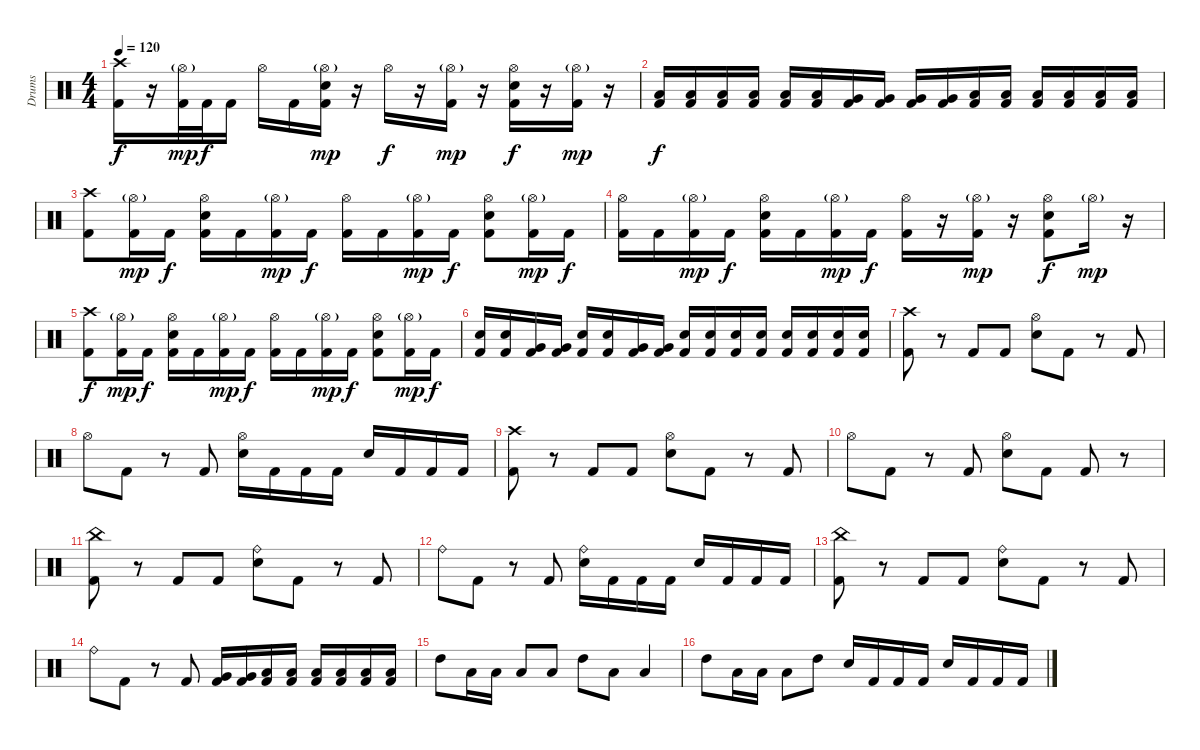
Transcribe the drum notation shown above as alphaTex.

\track ("Drums" "Drums") {instrument percussion}
\staff {score}
\articulation defaults
\ts (4 4)
\tempo 120
\clef neutral
\ks c
("Crash high (hit)" "Kick (hit) 2").16{dy f} r.16 ("Hi-Hat (open)"{g} "Kick (hit) 2").32{dy mp} "Kick (hit) 2".32{dy f} "Kick (hit) 2".16 "Hi-Hat (open)".16 "Kick (hit) 2".16 ("Hi-Hat (open)"{g} "Snare (hit) 2" "Kick (hit) 2").16{dy mp} r.16 "Hi-Hat (open)".16{dy f} r.16 ("Hi-Hat (open)"{g} "Kick (hit) 2").16{dy mp} r.16 ("Hi-Hat (open)" "Snare (hit) 2" "Kick (hit) 2").16{dy f} r.16 ("Hi-Hat (open)"{g} "Kick (hit) 2").16{dy mp} r.16 |
("Low Tom (hit)" "Kick (hit) 2").16{dy f} ("Low Tom (hit)" "Kick (hit) 2").16 ("Low Tom (hit)" "Kick (hit) 2").16 ("Low Tom (hit)" "Kick (hit) 2").16 ("Low Tom (hit)" "Kick (hit) 2").16 ("Low Tom (hit)" "Kick (hit) 2").16 ("Very Low Tom (hit)" "Kick (hit) 2").16 ("Very Low Tom (hit)" "Kick (hit) 2").16 ("Very Low Tom (hit)" "Kick (hit) 2").16 ("Very Low Tom (hit)" "Kick (hit) 2").16 ("Low Floor Tom (hit)" "Kick (hit) 2").16 ("Low Floor Tom (hit)" "Kick (hit) 2").16 ("Low Floor Tom (hit)" "Kick (hit) 2").16 ("Low Floor Tom (hit)" "Kick (hit) 2").16 ("Low Floor Tom (hit)" "Kick (hit) 2").16 ("Low Floor Tom (hit)" "Kick (hit) 2").16 |
("Crash high (hit)" "Kick (hit) 2").8 ("Hi-Hat (open)"{g} "Kick (hit) 2").16{dy mp} "Kick (hit) 2".16{dy f} ("Hi-Hat (open)" "Snare (hit) 2" "Kick (hit) 2").16 "Kick (hit) 2".16 ("Hi-Hat (open)"{g} "Kick (hit) 2").16{dy mp} "Kick (hit) 2".16{dy f} ("Hi-Hat (open)" "Kick (hit) 2").16 "Kick (hit) 2".16 ("Hi-Hat (open)"{g} "Kick (hit) 2").16{dy mp} "Kick (hit) 2".16{dy f} ("Hi-Hat (open)" "Snare (hit) 2" "Kick (hit) 2").8 ("Hi-Hat (open)"{g} "Kick (hit) 2").16{dy mp} "Kick (hit) 2".16{dy f} |
("Hi-Hat (open)" "Kick (hit) 2").16 "Kick (hit) 2".16 ("Hi-Hat (open)"{g} "Kick (hit) 2").16{dy mp} "Kick (hit) 2".16{dy f} ("Hi-Hat (open)" "Snare (hit) 2" "Kick (hit) 2").16 "Kick (hit) 2".16 ("Hi-Hat (open)"{g} "Kick (hit) 2").16{dy mp} "Kick (hit) 2".16{dy f} ("Hi-Hat (open)" "Kick (hit) 2").16 r.16 ("Hi-Hat (open)"{g} "Kick (hit) 2").16{dy mp} r.16 ("Hi-Hat (open)" "Snare (hit) 2" "Kick (hit) 2").8{dy f} "Hi-Hat (open)"{g}.16{dy mp} r.16 |
("Crash high (hit)" "Kick (hit) 2").8{dy f} ("Hi-Hat (open)"{g} "Kick (hit) 2").16{dy mp} "Kick (hit) 2".16{dy f} ("Hi-Hat (open)" "Snare (hit) 2" "Kick (hit) 2").16 "Kick (hit) 2".16 ("Hi-Hat (open)"{g} "Kick (hit) 2").16{dy mp} "Kick (hit) 2".16{dy f} ("Hi-Hat (open)" "Kick (hit) 2").16 "Kick (hit) 2".16 ("Hi-Hat (open)"{g} "Kick (hit) 2").16{dy mp} "Kick (hit) 2".16{dy f} ("Hi-Hat (open)" "Snare (hit) 2" "Kick (hit) 2").8 ("Hi-Hat (open)"{g} "Kick (hit) 2").16{dy mp} "Kick (hit) 2".16{dy f} |
("Snare (hit) 2" "Kick (hit) 2").16 ("Snare (hit) 2" "Kick (hit) 2").16 ("Very Low Tom (hit)" "Kick (hit) 2").16 ("Very Low Tom (hit)" "Kick (hit) 2").16 ("Snare (hit) 2" "Kick (hit) 2").16 ("Snare (hit) 2" "Kick (hit) 2").16 ("Very Low Tom (hit)" "Kick (hit) 2").16 ("Very Low Tom (hit)" "Kick (hit) 2").16 ("Snare (hit) 2" "Kick (hit) 2").16 ("Snare (hit) 2" "Kick (hit) 2").16 ("Snare (hit) 2" "Kick (hit) 2").16 ("Snare (hit) 2" "Kick (hit) 2").16 ("Snare (hit) 2" "Kick (hit) 2").16 ("Snare (hit) 2" "Kick (hit) 2").16 ("Snare (hit) 2" "Kick (hit) 2").16 ("Snare (hit) 2" "Kick (hit) 2").16 |
("Crash high (hit)" "Kick (hit) 2").8 r.8 "Kick (hit) 2".8 "Kick (hit) 2".8 ("Hi-Hat (open)" "Snare (hit) 2").8 "Kick (hit) 2".8 r.8 "Kick (hit) 2".8 |
"Hi-Hat (open)".8 "Kick (hit) 2".8 r.8 "Kick (hit) 2".8 ("Hi-Hat (open)" "Snare (hit) 2").16 "Kick (hit) 2".16 "Kick (hit) 2".16 "Kick (hit) 2".16 "Snare (hit) 2".16 "Kick (hit) 2".16 "Kick (hit) 2".16 "Kick (hit) 2".16 |
("Crash high (hit)" "Kick (hit) 2").8 r.8 "Kick (hit) 2".8 "Kick (hit) 2".8 ("Hi-Hat (open)" "Snare (hit) 2").8 "Kick (hit) 2".8 r.8 "Kick (hit) 2".8 |
"Hi-Hat (open)".8 "Kick (hit) 2".8 r.8 "Kick (hit) 2".8 ("Hi-Hat (open)" "Snare (hit) 2").8 "Kick (hit) 2".8 "Kick (hit) 2".8 r.8 |
("China (hit)" "Kick (hit) 2").8 r.8 "Kick (hit) 2".8 "Kick (hit) 2".8 ("Ride (bell)" "Snare (hit) 2").8 "Kick (hit) 2".8 r.8 "Kick (hit) 2".8 |
"Ride (bell)".8 "Kick (hit) 2".8 r.8 "Kick (hit) 2".8 ("Ride (bell)" "Snare (hit) 2").16 "Kick (hit) 2".16 "Kick (hit) 2".16 "Kick (hit) 2".16 "Snare (hit) 2".16 "Kick (hit) 2".16 "Kick (hit) 2".16 "Kick (hit) 2".16 |
("China (hit)" "Kick (hit) 2").8 r.8 "Kick (hit) 2".8 "Kick (hit) 2".8 ("Ride (bell)" "Snare (hit) 2").8 "Kick (hit) 2".8 r.8 "Kick (hit) 2".8 |
"Ride (bell)".8 "Kick (hit) 2".8 r.8 "Kick (hit) 2".8 ("Very Low Tom (hit)" "Kick (hit) 2").16 ("Very Low Tom (hit)" "Kick (hit) 2").16 ("Low Floor Tom (hit)" "Kick (hit) 2").16 ("Low Floor Tom (hit)" "Kick (hit) 2").16 ("Low Floor Tom (hit)" "Kick (hit) 2").16 ("Low Floor Tom (hit)" "Kick (hit) 2").16 ("Low Floor Tom (hit)" "Kick (hit) 2").16 ("Low Floor Tom (hit)" "Kick (hit) 2").16 |
"High Tom (hit)".8 "Low Tom (hit)".16 "Low Tom (hit)".16 "Low Tom (hit)".8 "Low Tom (hit)".8 "High Tom (hit)".8 "Low Tom (hit)".8 "Low Tom (hit)".4 |
"High Tom (hit)".8 "Low Tom (hit)".16 "Low Tom (hit)".16 "Low Tom (hit)".8 "High Tom (hit)".8 "Snare (hit) 2".16 "Kick (hit) 2".16 "Kick (hit) 2".16 "Kick (hit) 2".16 "Snare (hit) 2".16 "Kick (hit) 2".16 "Kick (hit) 2".16 "Kick (hit) 2".16
